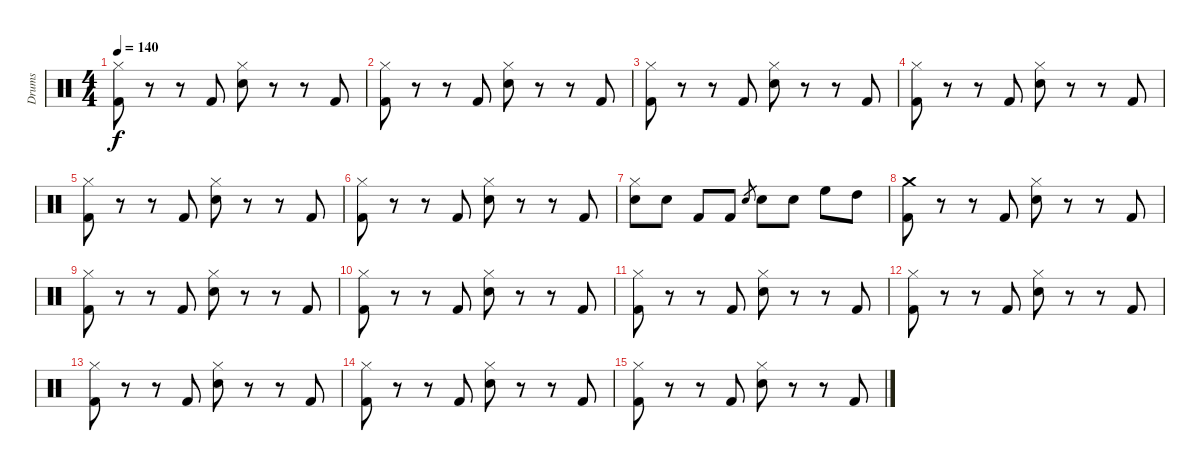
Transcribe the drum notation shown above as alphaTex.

\track ("Drums" "Drums") {instrument percussion}
\staff {score}
\articulation defaults
\ts (4 4)
\tempo 140
\clef neutral
\ks c
("Hi-Hat (closed)" "Kick (hit) 2").8{dy f} r.8 r.8 "Kick (hit) 2".8 ("Hi-Hat (closed)" "Snare (hit) 2").8 r.8 r.8 "Kick (hit) 2".8 |
("Hi-Hat (closed)" "Kick (hit) 2").8 r.8 r.8 "Kick (hit) 2".8 ("Hi-Hat (closed)" "Snare (hit) 2").8 r.8 r.8 "Kick (hit) 2".8 |
("Hi-Hat (closed)" "Kick (hit) 2").8 r.8 r.8 "Kick (hit) 2".8 ("Hi-Hat (closed)" "Snare (hit) 2").8 r.8 r.8 "Kick (hit) 2".8 |
("Hi-Hat (closed)" "Kick (hit) 2").8 r.8 r.8 "Kick (hit) 2".8 ("Hi-Hat (closed)" "Snare (hit) 2").8 r.8 r.8 "Kick (hit) 2".8 |
("Hi-Hat (closed)" "Kick (hit) 2").8 r.8 r.8 "Kick (hit) 2".8 ("Hi-Hat (closed)" "Snare (hit) 2").8 r.8 r.8 "Kick (hit) 2".8 |
("Hi-Hat (closed)" "Kick (hit) 2").8 r.8 r.8 "Kick (hit) 2".8 ("Hi-Hat (closed)" "Snare (hit) 2").8 r.8 r.8 "Kick (hit) 2".8 |
("Hi-Hat (closed)" "Snare (hit) 2").8 "Snare (hit) 2".8 "Kick (hit) 2".8 "Kick (hit) 2".8 "Electric Snare (hit)".8{gr} "Electric Snare (hit)".8 "Snare (hit) 2".8 "High Floor Tom (hit)".8 "High Tom (hit)".8 |
("Crash medium (hit)" "Kick (hit) 2").8 r.8 r.8 "Kick (hit) 2".8 ("Hi-Hat (closed)" "Snare (hit) 2").8 r.8 r.8 "Kick (hit) 2".8 |
("Hi-Hat (closed)" "Kick (hit) 2").8 r.8 r.8 "Kick (hit) 2".8 ("Hi-Hat (closed)" "Snare (hit) 2").8 r.8 r.8 "Kick (hit) 2".8 |
("Hi-Hat (closed)" "Kick (hit) 2").8 r.8 r.8 "Kick (hit) 2".8 ("Hi-Hat (closed)" "Snare (hit) 2").8 r.8 r.8 "Kick (hit) 2".8 |
("Hi-Hat (closed)" "Kick (hit) 2").8 r.8 r.8 "Kick (hit) 2".8 ("Hi-Hat (closed)" "Snare (hit) 2").8 r.8 r.8 "Kick (hit) 2".8 |
("Hi-Hat (closed)" "Kick (hit) 2").8 r.8 r.8 "Kick (hit) 2".8 ("Hi-Hat (closed)" "Snare (hit) 2").8 r.8 r.8 "Kick (hit) 2".8 |
("Hi-Hat (closed)" "Kick (hit) 2").8 r.8 r.8 "Kick (hit) 2".8 ("Hi-Hat (closed)" "Snare (hit) 2").8 r.8 r.8 "Kick (hit) 2".8 |
("Hi-Hat (closed)" "Kick (hit) 2").8 r.8 r.8 "Kick (hit) 2".8 ("Hi-Hat (closed)" "Snare (hit) 2").8 r.8 r.8 "Kick (hit) 2".8 |
("Hi-Hat (closed)" "Kick (hit) 2").8 r.8 r.8 "Kick (hit) 2".8 ("Hi-Hat (closed)" "Snare (hit) 2").8 r.8 r.8 "Kick (hit) 2".8
